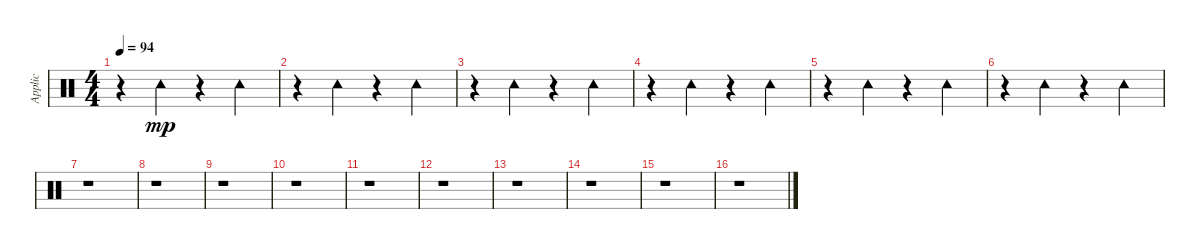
\track ("Applic" "Applic") {instrument percussion}
\staff {score}
\articulation defaults
\ts (4 4)
\tempo 94
\clef neutral
\ks c
r.4{dy mp} "Tambourine (hit)".4 r.4 "Tambourine (hit)".4 |
r.4 "Tambourine (hit)".4 r.4 "Tambourine (hit)".4 |
r.4 "Tambourine (hit)".4 r.4 "Tambourine (hit)".4 |
r.4 "Tambourine (hit)".4 r.4 "Tambourine (hit)".4 |
r.4 "Tambourine (hit)".4 r.4 "Tambourine (hit)".4 |
r.4 "Tambourine (hit)".4 r.4 "Tambourine (hit)".4 |
r.1 |
r.1 |
r.1 |
r.1 |
r.1 |
r.1 |
r.1 |
r.1 |
r.1 |
r.1
